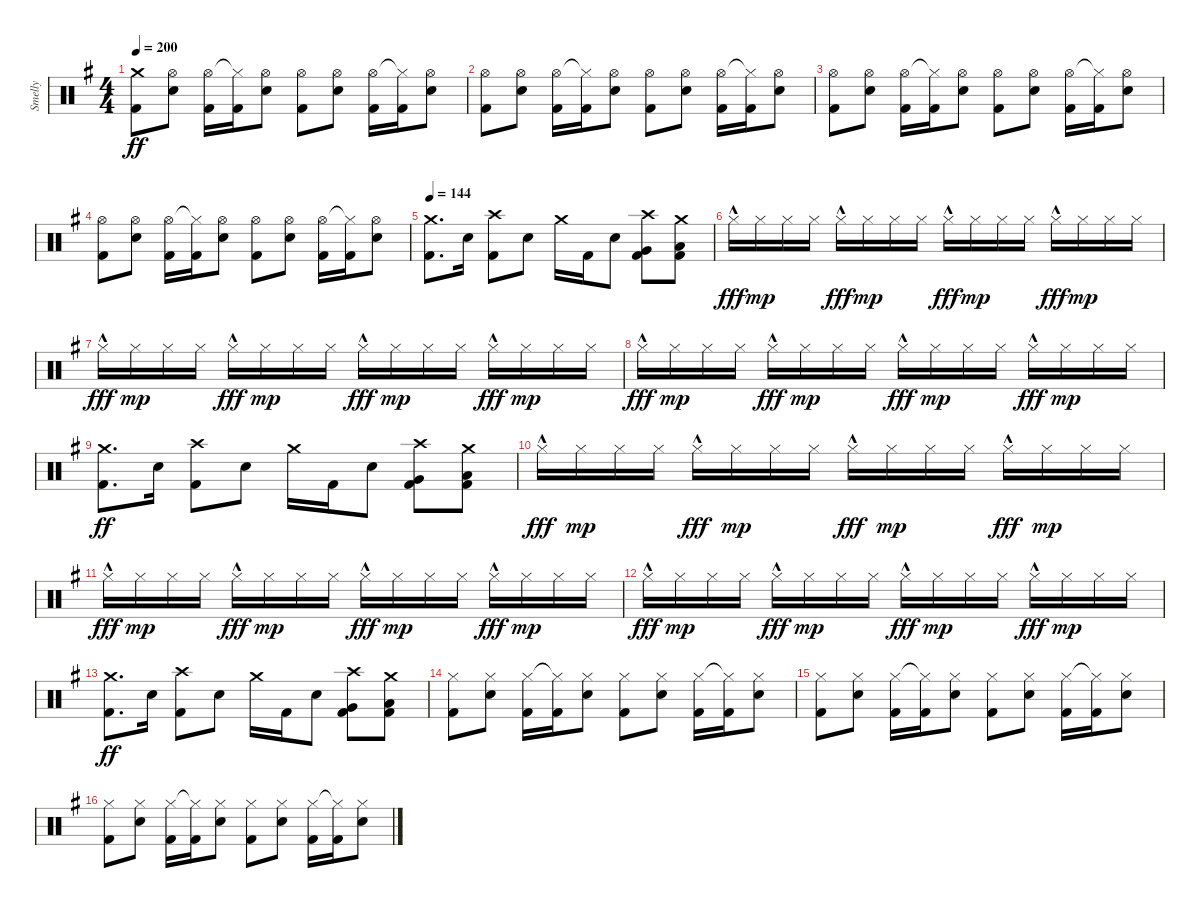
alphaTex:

\track ("Smelly" "Smelly") {instrument percussion}
\staff {score}
\articulation defaults
\ts (4 4)
\tempo 200
\clef neutral
\ks eminor
("Crash medium (hit)" "Kick (hit) 2").8{dy ff} ("Hi-Hat (open)" "Electric Snare (hit)").8 ("Hi-Hat (open)" "Kick (hit) 2").16 ("Hi-Hat (closed)"{t} "Kick (hit) 2").16 ("Hi-Hat (open)" "Electric Snare (hit)").8 ("Hi-Hat (open)" "Kick (hit) 2").8 ("Hi-Hat (open)" "Electric Snare (hit)").8 ("Hi-Hat (open)" "Kick (hit) 2").16 ("Hi-Hat (closed)"{t} "Kick (hit) 2").16 ("Hi-Hat (open)" "Electric Snare (hit)").8 |
("Hi-Hat (open)" "Kick (hit) 2").8 ("Hi-Hat (open)" "Electric Snare (hit)").8 ("Hi-Hat (open)" "Kick (hit) 2").16 ("Hi-Hat (closed)"{t} "Kick (hit) 2").16 ("Hi-Hat (open)" "Electric Snare (hit)").8 ("Hi-Hat (open)" "Kick (hit) 2").8 ("Hi-Hat (open)" "Electric Snare (hit)").8 ("Hi-Hat (open)" "Kick (hit) 2").16 ("Hi-Hat (closed)"{t} "Kick (hit) 2").16 ("Hi-Hat (open)" "Electric Snare (hit)").8 |
("Hi-Hat (open)" "Kick (hit) 2").8 ("Hi-Hat (open)" "Electric Snare (hit)").8 ("Hi-Hat (open)" "Kick (hit) 2").16 ("Hi-Hat (closed)"{t} "Kick (hit) 2").16 ("Hi-Hat (open)" "Electric Snare (hit)").8 ("Hi-Hat (open)" "Kick (hit) 2").8 ("Hi-Hat (open)" "Electric Snare (hit)").8 ("Hi-Hat (open)" "Kick (hit) 2").16 ("Hi-Hat (closed)"{t} "Kick (hit) 2").16 ("Hi-Hat (open)" "Electric Snare (hit)").8 |
("Hi-Hat (open)" "Kick (hit) 2").8 ("Hi-Hat (open)" "Electric Snare (hit)").8 ("Hi-Hat (open)" "Kick (hit) 2").16 ("Hi-Hat (closed)"{t} "Kick (hit) 2").16 ("Hi-Hat (open)" "Electric Snare (hit)").8 ("Hi-Hat (open)" "Kick (hit) 2").8 ("Hi-Hat (open)" "Electric Snare (hit)").8 ("Hi-Hat (open)" "Kick (hit) 2").16 ("Hi-Hat (closed)"{t} "Kick (hit) 2").16 ("Hi-Hat (open)" "Electric Snare (hit)").8 |
\tempo 144
("Crash medium (hit)" "Kick (hit) 2").8{d} "Electric Snare (hit)".16 ("Crash high (hit)" "Kick (hit) 2").8 "Electric Snare (hit)".8 "Crash medium (hit)".16 "Kick (hit) 2".16 "Electric Snare (hit)".8 ("Crash high (hit)" "Very Low Tom (hit)" "Kick (hit) 2").8 ("Crash medium (hit)" "Low Floor Tom (hit)" "Kick (hit) 2").8 |
"Hi-Hat (closed)"{hac}.16{dy fff} "Hi-Hat (closed)".16{dy mp} "Hi-Hat (closed)".16 "Hi-Hat (closed)".16 "Hi-Hat (closed)"{hac}.16{dy fff} "Hi-Hat (closed)".16{dy mp} "Hi-Hat (closed)".16 "Hi-Hat (closed)".16 "Hi-Hat (closed)"{hac}.16{dy fff} "Hi-Hat (closed)".16{dy mp} "Hi-Hat (closed)".16 "Hi-Hat (closed)".16 "Hi-Hat (closed)"{hac}.16{dy fff} "Hi-Hat (closed)".16{dy mp} "Hi-Hat (closed)".16 "Hi-Hat (closed)".16 |
"Hi-Hat (closed)"{hac}.16{dy fff} "Hi-Hat (closed)".16{dy mp} "Hi-Hat (closed)".16 "Hi-Hat (closed)".16 "Hi-Hat (closed)"{hac}.16{dy fff} "Hi-Hat (closed)".16{dy mp} "Hi-Hat (closed)".16 "Hi-Hat (closed)".16 "Hi-Hat (closed)"{hac}.16{dy fff} "Hi-Hat (closed)".16{dy mp} "Hi-Hat (closed)".16 "Hi-Hat (closed)".16 "Hi-Hat (closed)"{hac}.16{dy fff} "Hi-Hat (closed)".16{dy mp} "Hi-Hat (closed)".16 "Hi-Hat (closed)".16 |
"Hi-Hat (closed)"{hac}.16{dy fff} "Hi-Hat (closed)".16{dy mp} "Hi-Hat (closed)".16 "Hi-Hat (closed)".16 "Hi-Hat (closed)"{hac}.16{dy fff} "Hi-Hat (closed)".16{dy mp} "Hi-Hat (closed)".16 "Hi-Hat (closed)".16 "Hi-Hat (closed)"{hac}.16{dy fff} "Hi-Hat (closed)".16{dy mp} "Hi-Hat (closed)".16 "Hi-Hat (closed)".16 "Hi-Hat (closed)"{hac}.16{dy fff} "Hi-Hat (closed)".16{dy mp} "Hi-Hat (closed)".16 "Hi-Hat (closed)".16 |
("Crash medium (hit)" "Kick (hit) 2").8{d dy ff} "Electric Snare (hit)".16 ("Crash high (hit)" "Kick (hit) 2").8 "Electric Snare (hit)".8 "Crash medium (hit)".16 "Kick (hit) 2".16 "Electric Snare (hit)".8 ("Crash high (hit)" "Very Low Tom (hit)" "Kick (hit) 2").8 ("Crash medium (hit)" "Low Floor Tom (hit)" "Kick (hit) 2").8 |
"Hi-Hat (closed)"{hac}.16{dy fff} "Hi-Hat (closed)".16{dy mp} "Hi-Hat (closed)".16 "Hi-Hat (closed)".16 "Hi-Hat (closed)"{hac}.16{dy fff} "Hi-Hat (closed)".16{dy mp} "Hi-Hat (closed)".16 "Hi-Hat (closed)".16 "Hi-Hat (closed)"{hac}.16{dy fff} "Hi-Hat (closed)".16{dy mp} "Hi-Hat (closed)".16 "Hi-Hat (closed)".16 "Hi-Hat (closed)"{hac}.16{dy fff} "Hi-Hat (closed)".16{dy mp} "Hi-Hat (closed)".16 "Hi-Hat (closed)".16 |
"Hi-Hat (closed)"{hac}.16{dy fff} "Hi-Hat (closed)".16{dy mp} "Hi-Hat (closed)".16 "Hi-Hat (closed)".16 "Hi-Hat (closed)"{hac}.16{dy fff} "Hi-Hat (closed)".16{dy mp} "Hi-Hat (closed)".16 "Hi-Hat (closed)".16 "Hi-Hat (closed)"{hac}.16{dy fff} "Hi-Hat (closed)".16{dy mp} "Hi-Hat (closed)".16 "Hi-Hat (closed)".16 "Hi-Hat (closed)"{hac}.16{dy fff} "Hi-Hat (closed)".16{dy mp} "Hi-Hat (closed)".16 "Hi-Hat (closed)".16 |
"Hi-Hat (closed)"{hac}.16{dy fff} "Hi-Hat (closed)".16{dy mp} "Hi-Hat (closed)".16 "Hi-Hat (closed)".16 "Hi-Hat (closed)"{hac}.16{dy fff} "Hi-Hat (closed)".16{dy mp} "Hi-Hat (closed)".16 "Hi-Hat (closed)".16 "Hi-Hat (closed)"{hac}.16{dy fff} "Hi-Hat (closed)".16{dy mp} "Hi-Hat (closed)".16 "Hi-Hat (closed)".16 "Hi-Hat (closed)"{hac}.16{dy fff} "Hi-Hat (closed)".16{dy mp} "Hi-Hat (closed)".16 "Hi-Hat (closed)".16 |
("Crash medium (hit)" "Kick (hit) 2").8{d dy ff} "Electric Snare (hit)".16 ("Crash high (hit)" "Kick (hit) 2").8 "Electric Snare (hit)".8 "Crash medium (hit)".16 "Kick (hit) 2".16 "Electric Snare (hit)".8 ("Crash high (hit)" "Very Low Tom (hit)" "Kick (hit) 2").8 ("Crash medium (hit)" "Low Floor Tom (hit)" "Kick (hit) 2").8 |
("Hi-Hat (closed)" "Kick (hit) 2").8 ("Hi-Hat (closed)" "Electric Snare (hit)").8 ("Hi-Hat (closed)" "Kick (hit) 2").16 ("Hi-Hat (closed)"{t} "Kick (hit) 2").16 ("Hi-Hat (closed)" "Electric Snare (hit)").8 ("Hi-Hat (closed)" "Kick (hit) 2").8 ("Hi-Hat (closed)" "Electric Snare (hit)").8 ("Hi-Hat (closed)" "Kick (hit) 2").16 ("Hi-Hat (closed)"{t} "Kick (hit) 2").16 ("Hi-Hat (closed)" "Electric Snare (hit)").8 |
("Hi-Hat (closed)" "Kick (hit) 2").8 ("Hi-Hat (closed)" "Electric Snare (hit)").8 ("Hi-Hat (closed)" "Kick (hit) 2").16 ("Hi-Hat (closed)"{t} "Kick (hit) 2").16 ("Hi-Hat (closed)" "Electric Snare (hit)").8 ("Hi-Hat (closed)" "Kick (hit) 2").8 ("Hi-Hat (closed)" "Electric Snare (hit)").8 ("Hi-Hat (closed)" "Kick (hit) 2").16 ("Hi-Hat (closed)"{t} "Kick (hit) 2").16 ("Hi-Hat (closed)" "Electric Snare (hit)").8 |
("Hi-Hat (closed)" "Kick (hit) 2").8 ("Hi-Hat (closed)" "Electric Snare (hit)").8 ("Hi-Hat (closed)" "Kick (hit) 2").16 ("Hi-Hat (closed)"{t} "Kick (hit) 2").16 ("Hi-Hat (closed)" "Electric Snare (hit)").8 ("Hi-Hat (closed)" "Kick (hit) 2").8 ("Hi-Hat (closed)" "Electric Snare (hit)").8 ("Hi-Hat (closed)" "Kick (hit) 2").16 ("Hi-Hat (closed)"{t} "Kick (hit) 2").16 ("Hi-Hat (closed)" "Electric Snare (hit)").8
